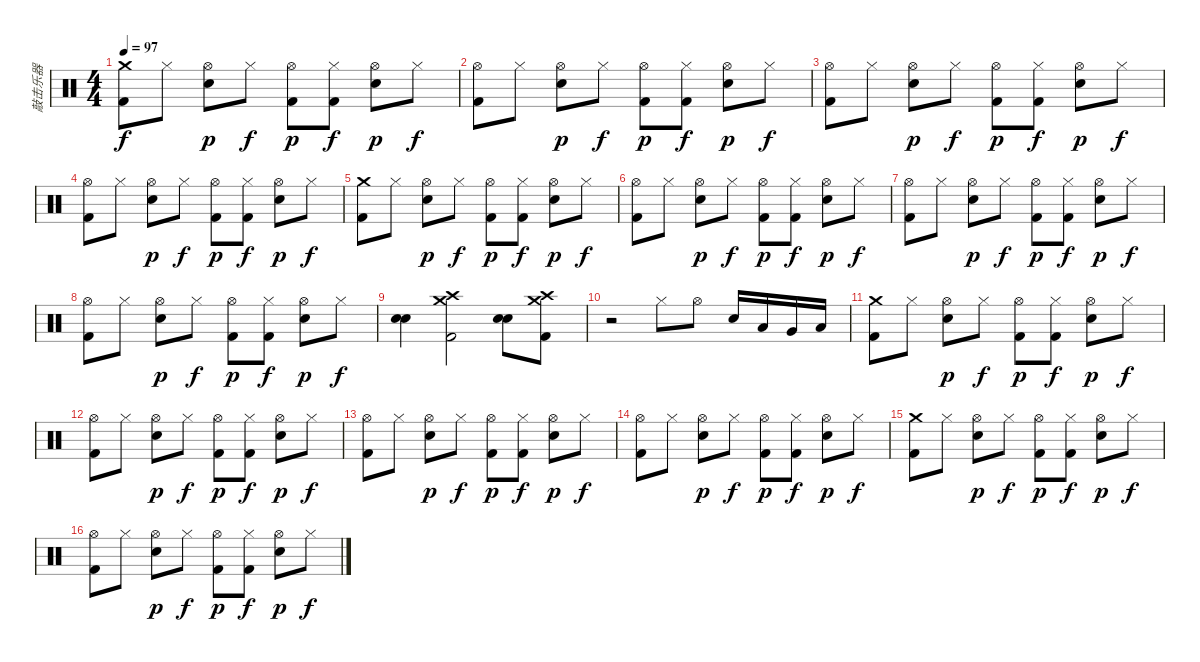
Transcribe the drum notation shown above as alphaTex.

\track ("敲击乐器" "敲击乐器") {instrument percussion}
\staff {score}
\articulation defaults
\ts (4 4)
\tempo 97
\clef neutral
\ks c
("Crash medium (hit)" "Kick (hit) 2").8{dy f} "Hi-Hat (closed)".8 ("Hi-Hat (open)" "Snare (hit) 2").8{dy p} "Hi-Hat (closed)".8{dy f} ("Hi-Hat (open)" "Kick (hit) 2").8{dy p} ("Hi-Hat (closed)" "Kick (hit) 2").8{dy f} ("Hi-Hat (open)" "Snare (hit) 2").8{dy p} "Hi-Hat (closed)".8{dy f} |
("Hi-Hat (open)" "Kick (hit) 2").8 "Hi-Hat (closed)".8 ("Hi-Hat (open)" "Snare (hit) 2").8{dy p} "Hi-Hat (closed)".8{dy f} ("Hi-Hat (open)" "Kick (hit) 2").8{dy p} ("Hi-Hat (closed)" "Kick (hit) 2").8{dy f} ("Hi-Hat (open)" "Snare (hit) 2").8{dy p} "Hi-Hat (closed)".8{dy f} |
("Hi-Hat (open)" "Kick (hit) 2").8 "Hi-Hat (closed)".8 ("Hi-Hat (open)" "Snare (hit) 2").8{dy p} "Hi-Hat (closed)".8{dy f} ("Hi-Hat (open)" "Kick (hit) 2").8{dy p} ("Hi-Hat (closed)" "Kick (hit) 2").8{dy f} ("Hi-Hat (open)" "Snare (hit) 2").8{dy p} "Hi-Hat (closed)".8{dy f} |
("Hi-Hat (open)" "Kick (hit) 2").8 "Hi-Hat (closed)".8 ("Hi-Hat (open)" "Snare (hit) 2").8{dy p} "Hi-Hat (closed)".8{dy f} ("Hi-Hat (open)" "Kick (hit) 2").8{dy p} ("Hi-Hat (closed)" "Kick (hit) 2").8{dy f} ("Hi-Hat (open)" "Snare (hit) 2").8{dy p} "Hi-Hat (closed)".8{dy f} |
("Crash medium (hit)" "Kick (hit) 2").8 "Hi-Hat (closed)".8 ("Hi-Hat (open)" "Snare (hit) 2").8{dy p} "Hi-Hat (closed)".8{dy f} ("Hi-Hat (open)" "Kick (hit) 2").8{dy p} ("Hi-Hat (closed)" "Kick (hit) 2").8{dy f} ("Hi-Hat (open)" "Snare (hit) 2").8{dy p} "Hi-Hat (closed)".8{dy f} |
("Hi-Hat (open)" "Kick (hit) 2").8 "Hi-Hat (closed)".8 ("Hi-Hat (open)" "Snare (hit) 2").8{dy p} "Hi-Hat (closed)".8{dy f} ("Hi-Hat (open)" "Kick (hit) 2").8{dy p} ("Hi-Hat (closed)" "Kick (hit) 2").8{dy f} ("Hi-Hat (open)" "Snare (hit) 2").8{dy p} "Hi-Hat (closed)".8{dy f} |
("Hi-Hat (open)" "Kick (hit) 2").8 "Hi-Hat (closed)".8 ("Hi-Hat (open)" "Snare (hit) 2").8{dy p} "Hi-Hat (closed)".8{dy f} ("Hi-Hat (open)" "Kick (hit) 2").8{dy p} ("Hi-Hat (closed)" "Kick (hit) 2").8{dy f} ("Hi-Hat (open)" "Snare (hit) 2").8{dy p} "Hi-Hat (closed)".8{dy f} |
("Hi-Hat (open)" "Kick (hit) 2").8 "Hi-Hat (closed)".8 ("Hi-Hat (open)" "Snare (hit) 2").8{dy p} "Hi-Hat (closed)".8{dy f} ("Hi-Hat (open)" "Kick (hit) 2").8{dy p} ("Hi-Hat (closed)" "Kick (hit) 2").8{dy f} ("Hi-Hat (open)" "Snare (hit) 2").8{dy p} "Hi-Hat (closed)".8{dy f} |
("Snare (hit) 2" "Snare (hit) 2").4 ("Crash medium (hit)" "Crash high (hit)" "Kick (hit) 2").2 ("Snare (hit) 2" "Snare (hit) 2").8 ("Crash medium (hit)" "Crash high (hit)" "Kick (hit) 2").8 |
r.2 "Hi-Hat (closed)".8 "Hi-Hat (open)".8 "Snare (hit) 2".16 "Low Tom (hit)".16 "Very Low Tom (hit)".16 "Low Floor Tom (hit)".16 |
("Crash medium (hit)" "Kick (hit) 2").8 "Hi-Hat (closed)".8 ("Hi-Hat (open)" "Snare (hit) 2").8{dy p} "Hi-Hat (closed)".8{dy f} ("Hi-Hat (open)" "Kick (hit) 2").8{dy p} ("Hi-Hat (closed)" "Kick (hit) 2").8{dy f} ("Hi-Hat (open)" "Snare (hit) 2").8{dy p} "Hi-Hat (closed)".8{dy f} |
("Hi-Hat (open)" "Kick (hit) 2").8 "Hi-Hat (closed)".8 ("Hi-Hat (open)" "Snare (hit) 2").8{dy p} "Hi-Hat (closed)".8{dy f} ("Hi-Hat (open)" "Kick (hit) 2").8{dy p} ("Hi-Hat (closed)" "Kick (hit) 2").8{dy f} ("Hi-Hat (open)" "Snare (hit) 2").8{dy p} "Hi-Hat (closed)".8{dy f} |
("Hi-Hat (open)" "Kick (hit) 2").8 "Hi-Hat (closed)".8 ("Hi-Hat (open)" "Snare (hit) 2").8{dy p} "Hi-Hat (closed)".8{dy f} ("Hi-Hat (open)" "Kick (hit) 2").8{dy p} ("Hi-Hat (closed)" "Kick (hit) 2").8{dy f} ("Hi-Hat (open)" "Snare (hit) 2").8{dy p} "Hi-Hat (closed)".8{dy f} |
("Hi-Hat (open)" "Kick (hit) 2").8 "Hi-Hat (closed)".8 ("Hi-Hat (open)" "Snare (hit) 2").8{dy p} "Hi-Hat (closed)".8{dy f} ("Hi-Hat (open)" "Kick (hit) 2").8{dy p} ("Hi-Hat (closed)" "Kick (hit) 2").8{dy f} ("Hi-Hat (open)" "Snare (hit) 2").8{dy p} "Hi-Hat (closed)".8{dy f} |
("Crash medium (hit)" "Kick (hit) 2").8 "Hi-Hat (closed)".8 ("Hi-Hat (open)" "Snare (hit) 2").8{dy p} "Hi-Hat (closed)".8{dy f} ("Hi-Hat (open)" "Kick (hit) 2").8{dy p} ("Hi-Hat (closed)" "Kick (hit) 2").8{dy f} ("Hi-Hat (open)" "Snare (hit) 2").8{dy p} "Hi-Hat (closed)".8{dy f} |
("Hi-Hat (open)" "Kick (hit) 2").8 "Hi-Hat (closed)".8 ("Hi-Hat (open)" "Snare (hit) 2").8{dy p} "Hi-Hat (closed)".8{dy f} ("Hi-Hat (open)" "Kick (hit) 2").8{dy p} ("Hi-Hat (closed)" "Kick (hit) 2").8{dy f} ("Hi-Hat (open)" "Snare (hit) 2").8{dy p} "Hi-Hat (closed)".8{dy f}
